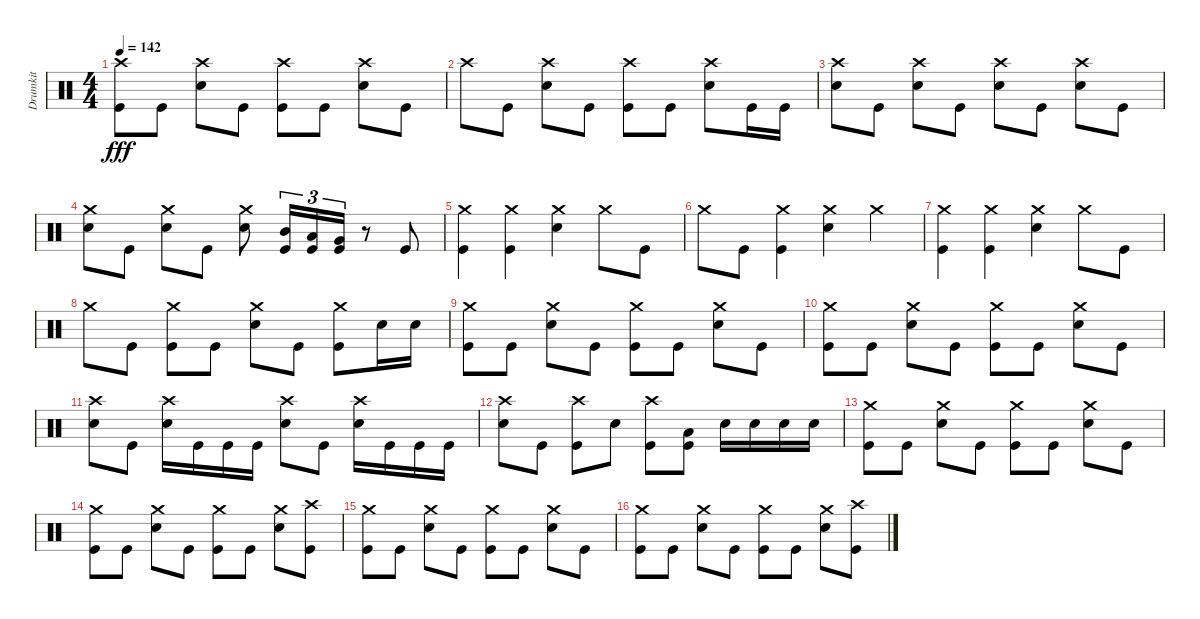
\track ("Drumkit" "Drumkit") {instrument percussion}
\staff {score}
\articulation defaults
\ts (4 4)
\tempo 142
\clef neutral
\ks c
("Kick (hit)" "Crash high (hit)").8{dy fff} "Kick (hit)".8 ("Snare (hit) 2" "Crash high (hit)").8 "Kick (hit)".8 ("Kick (hit)" "Crash high (hit)").8 "Kick (hit)".8 ("Snare (hit) 2" "Crash high (hit)").8 "Kick (hit)".8 |
"Crash high (hit)".8 "Kick (hit)".8 ("Snare (hit) 2" "Crash high (hit)").8 "Kick (hit)".8 ("Kick (hit)" "Crash high (hit)").8 "Kick (hit)".8 ("Snare (hit) 2" "Crash high (hit)").8 "Kick (hit)".16 "Kick (hit)".16 |
("Snare (hit) 2" "Crash high (hit)").8 "Kick (hit)".8 ("Snare (hit) 2" "Crash high (hit)").8 "Kick (hit)".8 ("Snare (hit) 2" "Crash high (hit)").8 "Kick (hit)".8 ("Snare (hit) 2" "Crash high (hit)").8 "Kick (hit)".8 |
("Crash medium (hit)" "Snare (hit) 2").8 "Kick (hit)".8 ("Crash medium (hit)" "Snare (hit) 2").8 "Kick (hit)".8 ("Crash medium (hit)" "Snare (hit) 2").8 ("Kick (hit)" "Mid Tom (hit)").16{tu (3 2)} ("Kick (hit)" "Low Tom (hit)").16{tu (3 2)} ("Kick (hit)" "Very Low Tom (hit)").16{tu (3 2)} r.8 "Kick (hit)".8 |
("Kick (hit)" "Crash medium (hit)").4 ("Kick (hit)" "Crash medium (hit)").4 ("Snare (hit) 2" "Crash medium (hit)").4 "Crash medium (hit)".8 "Kick (hit)".8 |
"Crash medium (hit)".8 "Kick (hit)".8 ("Kick (hit)" "Crash medium (hit)").4 ("Snare (hit) 2" "Crash medium (hit)").4 "Crash medium (hit)".4 |
("Kick (hit)" "Crash medium (hit)").4 ("Kick (hit)" "Crash medium (hit)").4 ("Snare (hit) 2" "Crash medium (hit)").4 "Crash medium (hit)".8 "Kick (hit)".8 |
"Crash medium (hit)".8 "Kick (hit)".8 ("Kick (hit)" "Crash medium (hit)").8 "Kick (hit)".8 ("Crash medium (hit)" "Snare (hit) 2").8 "Kick (hit)".8 ("Kick (hit)" "Crash medium (hit)").8 "Snare (hit) 2".16 "Snare (hit) 2".16 |
("Kick (hit)" "Crash medium (hit)").8 "Kick (hit)".8 ("Snare (hit) 2" "Crash medium (hit)").8 "Kick (hit)".8 ("Kick (hit)" "Crash medium (hit)").8 "Kick (hit)".8 ("Snare (hit) 2" "Crash medium (hit)").8 "Kick (hit)".8 |
("Kick (hit)" "Crash medium (hit)").8 "Kick (hit)".8 ("Snare (hit) 2" "Crash medium (hit)").8 "Kick (hit)".8 ("Kick (hit)" "Crash medium (hit)").8 "Kick (hit)".8 ("Snare (hit) 2" "Crash medium (hit)").8 "Kick (hit)".8 |
("Snare (hit) 2" "Crash high (hit)").8 "Kick (hit)".8 ("Snare (hit) 2" "Crash high (hit)").16 "Kick (hit)".16 "Kick (hit)".16 "Kick (hit)".16 ("Snare (hit) 2" "Crash high (hit)").8 "Kick (hit)".8 ("Snare (hit) 2" "Crash high (hit)").16 "Kick (hit)".16 "Kick (hit)".16 "Kick (hit)".16 |
("Snare (hit) 2" "Crash high (hit)").8 "Kick (hit)".8 ("Kick (hit)" "Crash high (hit)").8 "Snare (hit) 2".8 ("Kick (hit)" "Crash high (hit)").8 ("Kick (hit)" "Low Tom (hit)").8 "Snare (hit) 2".16 "Snare (hit) 2".16 "Snare (hit) 2".16 "Snare (hit) 2".16 |
("Kick (hit)" "Crash medium (hit)").8 "Kick (hit)".8 ("Snare (hit) 2" "Crash medium (hit)").8 "Kick (hit)".8 ("Kick (hit)" "Crash medium (hit)").8 "Kick (hit)".8 ("Snare (hit) 2" "Crash medium (hit)").8 "Kick (hit)".8 |
("Kick (hit)" "Crash medium (hit)").8 "Kick (hit)".8 ("Snare (hit) 2" "Crash medium (hit)").8 "Kick (hit)".8 ("Kick (hit)" "Crash medium (hit)").8 "Kick (hit)".8 ("Snare (hit) 2" "Crash medium (hit)").8 ("Kick (hit)" "Crash high (hit)").8 |
("Kick (hit)" "Crash medium (hit)").8 "Kick (hit)".8 ("Snare (hit) 2" "Crash medium (hit)").8 "Kick (hit)".8 ("Kick (hit)" "Crash medium (hit)").8 "Kick (hit)".8 ("Snare (hit) 2" "Crash medium (hit)").8 "Kick (hit)".8 |
("Kick (hit)" "Crash medium (hit)").8 "Kick (hit)".8 ("Snare (hit) 2" "Crash medium (hit)").8 "Kick (hit)".8 ("Kick (hit)" "Crash medium (hit)").8 "Kick (hit)".8 ("Snare (hit) 2" "Crash medium (hit)").8 ("Kick (hit)" "Crash high (hit)").8
